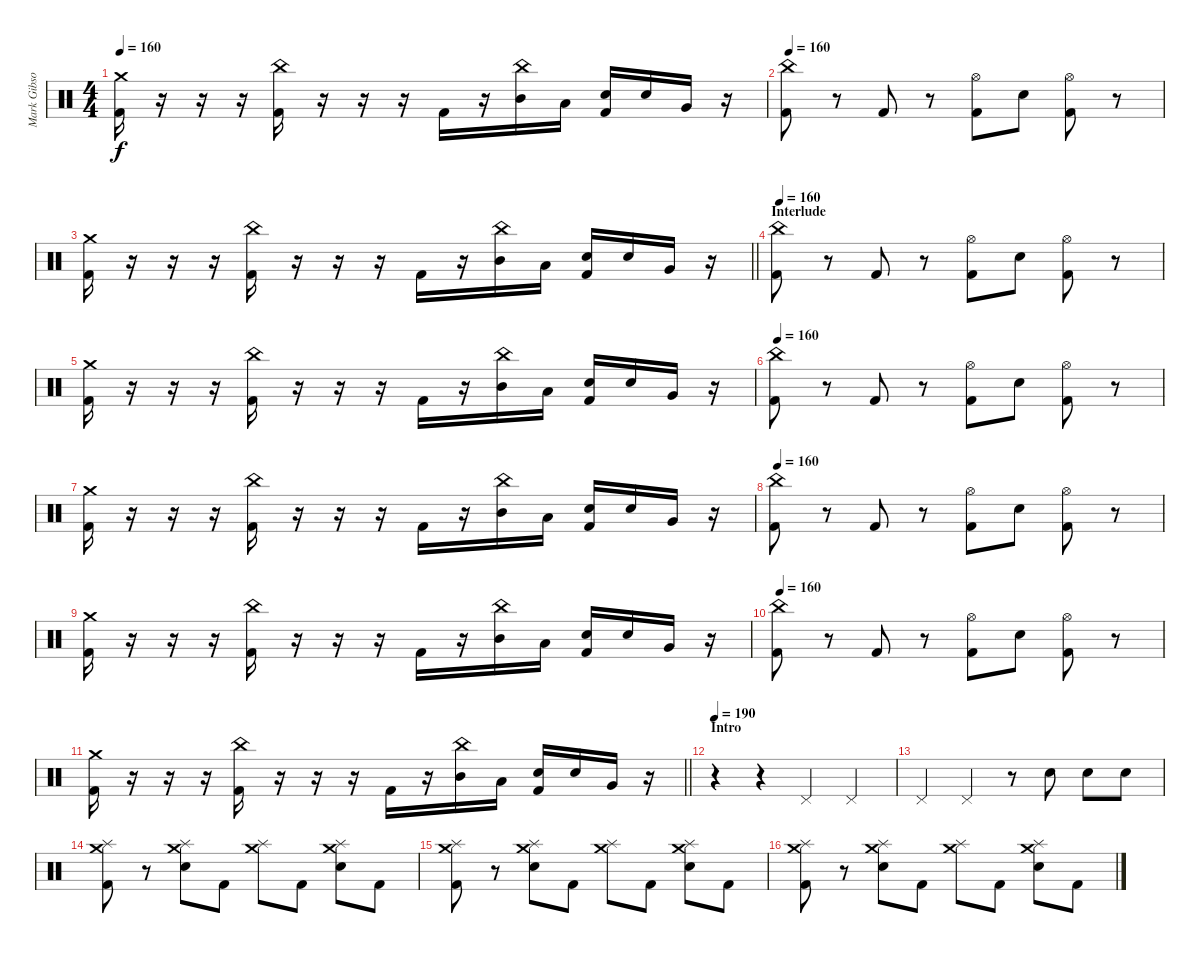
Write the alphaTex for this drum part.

\track ("Mark Gibson" "Mark Gibso") {instrument percussion}
\staff {score}
\articulation defaults
\ts (4 4)
\tempo 160
\clef neutral
\ks c
("Crash medium (hit)" "Kick (hit) 2").16{dy f} r.16 r.16 r.16 ("China (hit)" "Kick (hit) 2").16 r.16 r.16 r.16 "Kick (hit) 2".16 r.16 ("China (hit)" "Mid Tom (hit)").16 "Low Tom (hit)".16 ("Electric Snare (hit)" "Kick (hit) 2").16 "Electric Snare (hit)".16 "Very Low Tom (hit)".16 r.16 |
\tempo 160
("China (hit)" "Kick (hit) 2").8 r.8 "Kick (hit) 2".8 r.8 ("Hi-Hat (open)" "Kick (hit) 2").8 "Electric Snare (hit)".8 ("Hi-Hat (open)" "Kick (hit) 2").8 r.8 |
\barLineRight lightlight
("Crash medium (hit)" "Kick (hit) 2").16 r.16 r.16 r.16 ("China (hit)" "Kick (hit) 2").16 r.16 r.16 r.16 "Kick (hit) 2".16 r.16 ("China (hit)" "Mid Tom (hit)").16 "Low Tom (hit)".16 ("Electric Snare (hit)" "Kick (hit) 2").16 "Electric Snare (hit)".16 "Very Low Tom (hit)".16 r.16 |
\section ("" "Interlude")
\tempo 160
("China (hit)" "Kick (hit) 2").8 r.8 "Kick (hit) 2".8 r.8 ("Hi-Hat (open)" "Kick (hit) 2").8 "Electric Snare (hit)".8 ("Hi-Hat (open)" "Kick (hit) 2").8 r.8 |
("Crash medium (hit)" "Kick (hit) 2").16 r.16 r.16 r.16 ("China (hit)" "Kick (hit) 2").16 r.16 r.16 r.16 "Kick (hit) 2".16 r.16 ("China (hit)" "Mid Tom (hit)").16 "Low Tom (hit)".16 ("Electric Snare (hit)" "Kick (hit) 2").16 "Electric Snare (hit)".16 "Very Low Tom (hit)".16 r.16 |
\tempo 160
("China (hit)" "Kick (hit) 2").8 r.8 "Kick (hit) 2".8 r.8 ("Hi-Hat (open)" "Kick (hit) 2").8 "Electric Snare (hit)".8 ("Hi-Hat (open)" "Kick (hit) 2").8 r.8 |
("Crash medium (hit)" "Kick (hit) 2").16 r.16 r.16 r.16 ("China (hit)" "Kick (hit) 2").16 r.16 r.16 r.16 "Kick (hit) 2".16 r.16 ("China (hit)" "Mid Tom (hit)").16 "Low Tom (hit)".16 ("Electric Snare (hit)" "Kick (hit) 2").16 "Electric Snare (hit)".16 "Very Low Tom (hit)".16 r.16 |
\tempo 160
("China (hit)" "Kick (hit) 2").8 r.8 "Kick (hit) 2".8 r.8 ("Hi-Hat (open)" "Kick (hit) 2").8 "Electric Snare (hit)".8 ("Hi-Hat (open)" "Kick (hit) 2").8 r.8 |
("Crash medium (hit)" "Kick (hit) 2").16 r.16 r.16 r.16 ("China (hit)" "Kick (hit) 2").16 r.16 r.16 r.16 "Kick (hit) 2".16 r.16 ("China (hit)" "Mid Tom (hit)").16 "Low Tom (hit)".16 ("Electric Snare (hit)" "Kick (hit) 2").16 "Electric Snare (hit)".16 "Very Low Tom (hit)".16 r.16 |
\tempo 160
("China (hit)" "Kick (hit) 2").8 r.8 "Kick (hit) 2".8 r.8 ("Hi-Hat (open)" "Kick (hit) 2").8 "Electric Snare (hit)".8 ("Hi-Hat (open)" "Kick (hit) 2").8 r.8 |
\barLineRight lightlight
("Crash medium (hit)" "Kick (hit) 2").16 r.16 r.16 r.16 ("China (hit)" "Kick (hit) 2").16 r.16 r.16 r.16 "Kick (hit) 2".16 r.16 ("China (hit)" "Mid Tom (hit)").16 "Low Tom (hit)".16 ("Electric Snare (hit)" "Kick (hit) 2").16 "Electric Snare (hit)".16 "Very Low Tom (hit)".16 r.16 |
\section ("" "Intro")
\tempo 190
r.4 r.4 "Pedal Hi-Hat (hit)".4 "Pedal Hi-Hat (hit)".4 |
"Pedal Hi-Hat (hit)".4 "Pedal Hi-Hat (hit)".4 r.8 "Electric Snare (hit)".8 "Electric Snare (hit)".8 "Electric Snare (hit)".8 |
("Crash medium (hit)" "Splash (hit)" "Kick (hit) 2").8 r.8 ("Crash medium (hit)" "Splash (hit)" "Electric Snare (hit)").8 "Kick (hit) 2".8 ("Crash medium (hit)" "Splash (hit)").8 "Kick (hit) 2".8 ("Crash medium (hit)" "Splash (hit)" "Electric Snare (hit)").8 "Kick (hit) 2".8 |
("Crash medium (hit)" "Splash (hit)" "Kick (hit) 2").8 r.8 ("Crash medium (hit)" "Splash (hit)" "Electric Snare (hit)").8 "Kick (hit) 2".8 ("Crash medium (hit)" "Splash (hit)").8 "Kick (hit) 2".8 ("Crash medium (hit)" "Splash (hit)" "Electric Snare (hit)").8 "Kick (hit) 2".8 |
("Crash medium (hit)" "Splash (hit)" "Kick (hit) 2").8 r.8 ("Crash medium (hit)" "Splash (hit)" "Electric Snare (hit)").8 "Kick (hit) 2".8 ("Crash medium (hit)" "Splash (hit)").8 "Kick (hit) 2".8 ("Crash medium (hit)" "Splash (hit)" "Electric Snare (hit)").8 "Kick (hit) 2".8
